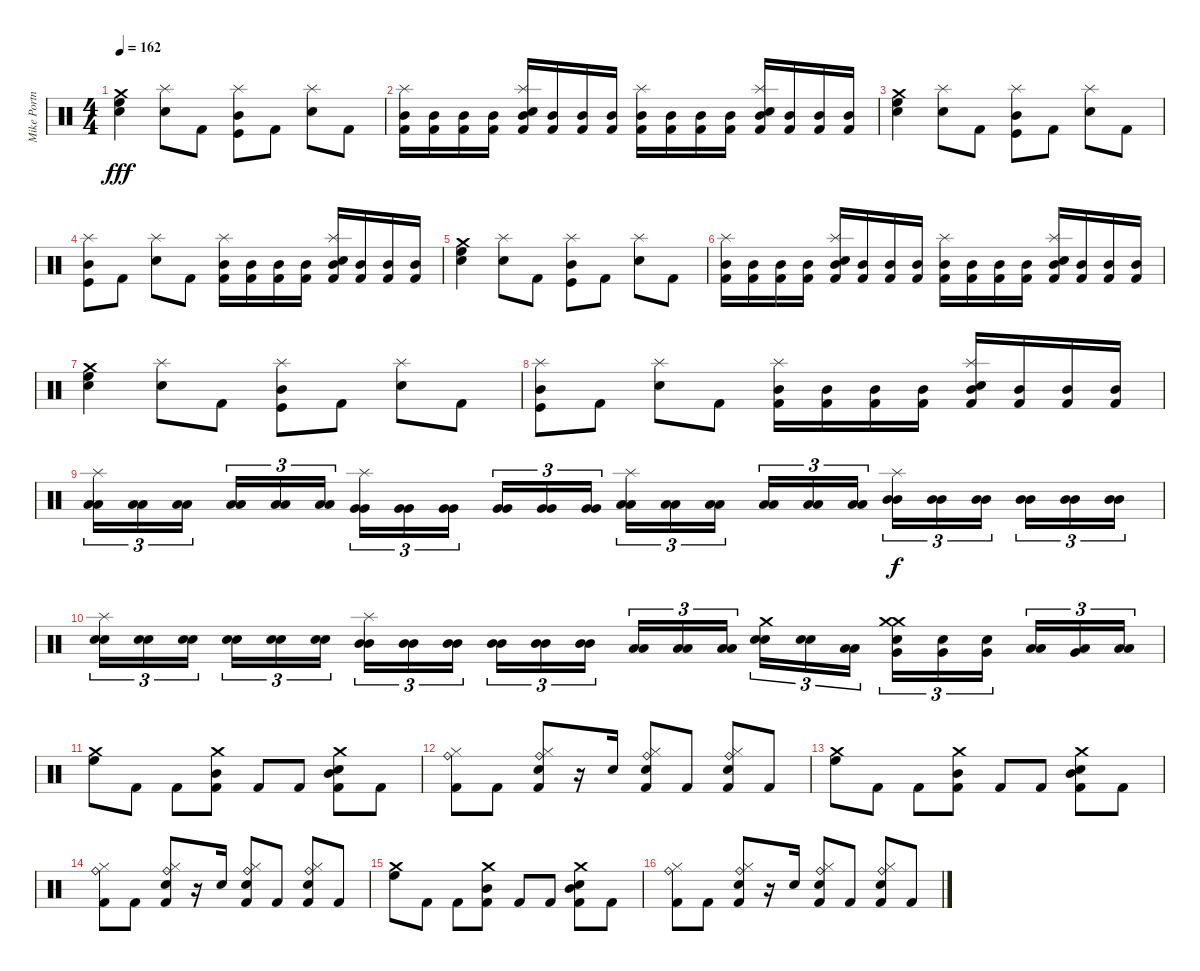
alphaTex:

\track ("Mike Portnoy" "Mike Portn") {instrument percussion}
\staff {score}
\articulation defaults
\ts (4 4)
\tempo 162
\clef neutral
\ks c
("Crash medium (hit)" "Electric Snare (hit)" "High Floor Tom (hit)").4{dy fff} ("Splash (hit)" "Electric Snare (hit)").8 "Kick (hit) 2".8 ("Splash (hit)" "Mid Tom (hit)" "Kick (hit)").8 "Kick (hit) 2".8 ("Splash (hit)" "Electric Snare (hit)").8 "Kick (hit) 2".8 |
("Splash (hit)" "Mid Tom (hit)" "Kick (hit) 2").16 ("Mid Tom (hit)" "Kick (hit) 2").16 ("Mid Tom (hit)" "Kick (hit) 2").16 ("Mid Tom (hit)" "Kick (hit) 2").16 ("Splash (hit)" "Electric Snare (hit)" "Mid Tom (hit)" "Kick (hit) 2").16 ("Mid Tom (hit)" "Kick (hit) 2").16 ("Mid Tom (hit)" "Kick (hit) 2").16 ("Mid Tom (hit)" "Kick (hit) 2").16 ("Splash (hit)" "Mid Tom (hit)" "Kick (hit) 2").16 ("Mid Tom (hit)" "Kick (hit) 2").16 ("Mid Tom (hit)" "Kick (hit) 2").16 ("Mid Tom (hit)" "Kick (hit) 2").16 ("Splash (hit)" "Electric Snare (hit)" "Mid Tom (hit)" "Kick (hit) 2").16 ("Mid Tom (hit)" "Kick (hit) 2").16 ("Mid Tom (hit)" "Kick (hit) 2").16 ("Mid Tom (hit)" "Kick (hit) 2").16 |
("Crash medium (hit)" "Electric Snare (hit)" "High Floor Tom (hit)").4 ("Splash (hit)" "Electric Snare (hit)").8 "Kick (hit) 2".8 ("Splash (hit)" "Mid Tom (hit)" "Kick (hit)").8 "Kick (hit) 2".8 ("Splash (hit)" "Electric Snare (hit)").8 "Kick (hit) 2".8 |
("Splash (hit)" "Mid Tom (hit)" "Kick (hit)").8 "Kick (hit) 2".8 ("Splash (hit)" "Electric Snare (hit)").8 "Kick (hit) 2".8 ("Splash (hit)" "Mid Tom (hit)" "Kick (hit) 2").16 ("Mid Tom (hit)" "Kick (hit) 2").16 ("Mid Tom (hit)" "Kick (hit) 2").16 ("Mid Tom (hit)" "Kick (hit) 2").16 ("Splash (hit)" "Electric Snare (hit)" "Mid Tom (hit)" "Kick (hit) 2").16 ("Mid Tom (hit)" "Kick (hit) 2").16 ("Mid Tom (hit)" "Kick (hit) 2").16 ("Mid Tom (hit)" "Kick (hit) 2").16 |
("Crash medium (hit)" "Electric Snare (hit)" "High Floor Tom (hit)").4 ("Splash (hit)" "Electric Snare (hit)").8 "Kick (hit) 2".8 ("Splash (hit)" "Mid Tom (hit)" "Kick (hit)").8 "Kick (hit) 2".8 ("Splash (hit)" "Electric Snare (hit)").8 "Kick (hit) 2".8 |
("Splash (hit)" "Mid Tom (hit)" "Kick (hit) 2").16 ("Mid Tom (hit)" "Kick (hit) 2").16 ("Mid Tom (hit)" "Kick (hit) 2").16 ("Mid Tom (hit)" "Kick (hit) 2").16 ("Splash (hit)" "Electric Snare (hit)" "Mid Tom (hit)" "Kick (hit) 2").16 ("Mid Tom (hit)" "Kick (hit) 2").16 ("Mid Tom (hit)" "Kick (hit) 2").16 ("Mid Tom (hit)" "Kick (hit) 2").16 ("Splash (hit)" "Mid Tom (hit)" "Kick (hit) 2").16 ("Mid Tom (hit)" "Kick (hit) 2").16 ("Mid Tom (hit)" "Kick (hit) 2").16 ("Mid Tom (hit)" "Kick (hit) 2").16 ("Splash (hit)" "Electric Snare (hit)" "Mid Tom (hit)" "Kick (hit) 2").16 ("Mid Tom (hit)" "Kick (hit) 2").16 ("Mid Tom (hit)" "Kick (hit) 2").16 ("Mid Tom (hit)" "Kick (hit) 2").16 |
("Crash medium (hit)" "Electric Snare (hit)" "High Floor Tom (hit)").4 ("Splash (hit)" "Electric Snare (hit)").8 "Kick (hit) 2".8 ("Splash (hit)" "Mid Tom (hit)" "Kick (hit)").8 "Kick (hit) 2".8 ("Splash (hit)" "Electric Snare (hit)").8 "Kick (hit) 2".8 |
("Splash (hit)" "Mid Tom (hit)" "Kick (hit)").8 "Kick (hit) 2".8 ("Splash (hit)" "Electric Snare (hit)").8 "Kick (hit) 2".8 ("Splash (hit)" "Mid Tom (hit)" "Kick (hit) 2").16 ("Mid Tom (hit)" "Kick (hit) 2").16 ("Mid Tom (hit)" "Kick (hit) 2").16 ("Mid Tom (hit)" "Kick (hit) 2").16 ("Splash (hit)" "Electric Snare (hit)" "Mid Tom (hit)" "Kick (hit) 2").16 ("Mid Tom (hit)" "Kick (hit) 2").16 ("Mid Tom (hit)" "Kick (hit) 2").16 ("Mid Tom (hit)" "Kick (hit) 2").16 |
("Splash (hit)" "Low Floor Tom (hit)" "Low Floor Tom (hit)").16{tu (3 2)} ("Low Floor Tom (hit)" "Low Floor Tom (hit)").16{tu (3 2)} ("Low Floor Tom (hit)" "Low Floor Tom (hit)").16{tu (3 2) beam splitsecondary} ("Low Floor Tom (hit)" "Low Floor Tom (hit)").16{tu (3 2)} ("Low Floor Tom (hit)" "Low Floor Tom (hit)").16{tu (3 2)} ("Low Floor Tom (hit)" "Low Floor Tom (hit)").16{tu (3 2)} ("Splash (hit)" "Very Low Tom (hit)" "Very Low Tom (hit)").16{tu (3 2)} ("Very Low Tom (hit)" "Very Low Tom (hit)").16{tu (3 2)} ("Very Low Tom (hit)" "Very Low Tom (hit)").16{tu (3 2) beam splitsecondary} ("Very Low Tom (hit)" "Very Low Tom (hit)").16{tu (3 2)} ("Very Low Tom (hit)" "Very Low Tom (hit)").16{tu (3 2)} ("Very Low Tom (hit)" "Very Low Tom (hit)").16{tu (3 2)} ("Splash (hit)" "Low Tom (hit)" "Low Tom (hit)").16{tu (3 2)} ("Low Tom (hit)" "Low Tom (hit)").16{tu (3 2)} ("Low Tom (hit)" "Low Tom (hit)").16{tu (3 2) beam splitsecondary} ("Low Tom (hit)" "Low Tom (hit)").16{tu (3 2)} ("Low Tom (hit)" "Low Tom (hit)").16{tu (3 2)} ("Low Tom (hit)" "Low Tom (hit)").16{tu (3 2)} ("Splash (hit)" "Mid Tom (hit)" "Mid Tom (hit)").16{tu (3 2) dy f} ("Mid Tom (hit)" "Mid Tom (hit)").16{tu (3 2)} ("Mid Tom (hit)" "Mid Tom (hit)").16{tu (3 2) beam splitsecondary} ("Mid Tom (hit)" "Mid Tom (hit)").16{tu (3 2)} ("Mid Tom (hit)" "Mid Tom (hit)").16{tu (3 2)} ("Mid Tom (hit)" "Mid Tom (hit)").16{tu (3 2)} |
("Splash (hit)" "Electric Snare (hit)" "Electric Snare (hit)").16{tu (3 2)} ("Electric Snare (hit)" "Electric Snare (hit)").16{tu (3 2)} ("Electric Snare (hit)" "Electric Snare (hit)").16{tu (3 2) beam splitsecondary} ("Electric Snare (hit)" "Electric Snare (hit)").16{tu (3 2)} ("Electric Snare (hit)" "Electric Snare (hit)").16{tu (3 2)} ("Electric Snare (hit)" "Electric Snare (hit)").16{tu (3 2)} ("Splash (hit)" "Mid Tom (hit)" "Mid Tom (hit)").16{tu (3 2)} ("Mid Tom (hit)" "Mid Tom (hit)").16{tu (3 2)} ("Mid Tom (hit)" "Mid Tom (hit)").16{tu (3 2) beam splitsecondary} ("Mid Tom (hit)" "Mid Tom (hit)").16{tu (3 2)} ("Mid Tom (hit)" "Mid Tom (hit)").16{tu (3 2)} ("Mid Tom (hit)" "Mid Tom (hit)").16{tu (3 2)} ("Low Tom (hit)" "Low Tom (hit)").16{tu (3 2)} ("Low Tom (hit)" "Low Tom (hit)").16{tu (3 2)} ("Low Tom (hit)" "Low Tom (hit)").16{tu (3 2) beam splitsecondary} ("Crash medium (hit)" "Electric Snare (hit)" "Electric Snare (hit)").16{tu (3 2)} ("Electric Snare (hit)" "Electric Snare (hit)").16{tu (3 2)} ("Low Tom (hit)" "Low Tom (hit)").16{tu (3 2)} ("Crash medium (hit)" "Crash medium (hit)" "Electric Snare (hit)" "Very Low Tom (hit)").16{tu (3 2)} ("Electric Snare (hit)" "Very Low Tom (hit)").16{tu (3 2)} ("Electric Snare (hit)" "Very Low Tom (hit)").16{tu (3 2) beam splitsecondary} ("Low Floor Tom (hit)" "Low Floor Tom (hit)").16{tu (3 2)} ("Very Low Tom (hit)" "Low Floor Tom (hit)").16{tu (3 2)} ("Low Floor Tom (hit)" "Low Floor Tom (hit)").16{tu (3 2)} |
("Crash medium (hit)" "High Floor Tom (hit)").8 "Kick (hit) 2".8 "Kick (hit) 2".8 ("Crash medium (hit)" "Mid Tom (hit)" "Kick (hit) 2").8 "Kick (hit) 2".8 "Kick (hit) 2".8 ("Crash medium (hit)" "Electric Snare (hit)" "Mid Tom (hit)" "Kick (hit) 2").8 "Kick (hit) 2".8 |
("Ride (bell)" "Hi-Hat (closed)" "Kick (hit) 2").8 "Kick (hit) 2".8 ("Ride (bell)" "Hi-Hat (closed)" "Snare (hit) 2" "Kick (hit) 2").8 r.16 "Electric Snare (hit)".16 ("Ride (bell)" "Hi-Hat (closed)" "Snare (hit) 2" "Kick (hit) 2").8 "Kick (hit) 2".8 ("Ride (bell)" "Hi-Hat (closed)" "Snare (hit) 2" "Kick (hit) 2").8 "Kick (hit) 2".8 |
("Crash medium (hit)" "High Floor Tom (hit)").8 "Kick (hit) 2".8 "Kick (hit) 2".8 ("Crash medium (hit)" "Mid Tom (hit)" "Kick (hit) 2").8 "Kick (hit) 2".8 "Kick (hit) 2".8 ("Crash medium (hit)" "Electric Snare (hit)" "Mid Tom (hit)" "Kick (hit) 2").8 "Kick (hit) 2".8 |
("Ride (bell)" "Hi-Hat (closed)" "Kick (hit) 2").8 "Kick (hit) 2".8 ("Ride (bell)" "Hi-Hat (closed)" "Snare (hit) 2" "Kick (hit) 2").8 r.16 "Electric Snare (hit)".16 ("Ride (bell)" "Hi-Hat (closed)" "Snare (hit) 2" "Kick (hit) 2").8 "Kick (hit) 2".8 ("Ride (bell)" "Hi-Hat (closed)" "Snare (hit) 2" "Kick (hit) 2").8 "Kick (hit) 2".8 |
("Crash medium (hit)" "High Floor Tom (hit)").8 "Kick (hit) 2".8 "Kick (hit) 2".8 ("Crash medium (hit)" "Mid Tom (hit)" "Kick (hit) 2").8 "Kick (hit) 2".8 "Kick (hit) 2".8 ("Crash medium (hit)" "Electric Snare (hit)" "Mid Tom (hit)" "Kick (hit) 2").8 "Kick (hit) 2".8 |
("Ride (bell)" "Hi-Hat (closed)" "Kick (hit) 2").8 "Kick (hit) 2".8 ("Ride (bell)" "Hi-Hat (closed)" "Snare (hit) 2" "Kick (hit) 2").8 r.16 "Electric Snare (hit)".16 ("Ride (bell)" "Hi-Hat (closed)" "Snare (hit) 2" "Kick (hit) 2").8 "Kick (hit) 2".8 ("Ride (bell)" "Hi-Hat (closed)" "Snare (hit) 2" "Kick (hit) 2").8 "Kick (hit) 2".8
